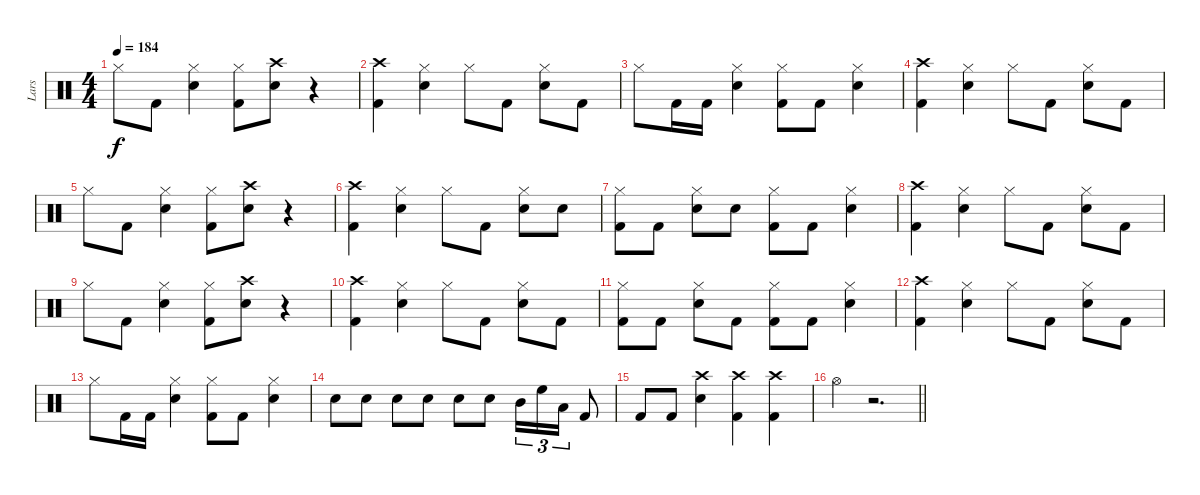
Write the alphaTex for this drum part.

\track ("Lars" "Lars") {instrument percussion}
\staff {score}
\articulation defaults
\ts (4 4)
\tempo 184
\clef neutral
\ks c "Hi-Hat (closed)".8{dy f} "Kick (hit) 2".8
("Hi-Hat (closed)" "Snare (hit) 2").4 ("Hi-Hat (closed)" "Kick (hit) 2").8 ("Crash high (hit)" "Snare (hit) 2").8 r.4 |
("Crash high (hit)" "Kick (hit) 2").4 ("Hi-Hat (closed)" "Snare (hit) 2").4 "Hi-Hat (closed)".8 "Kick (hit) 2".8 ("Hi-Hat (closed)" "Snare (hit) 2").8 "Kick (hit) 2".8 |
"Hi-Hat (closed)".8 "Kick (hit) 2".16 "Kick (hit) 2".16 ("Hi-Hat (closed)" "Snare (hit) 2").4 ("Hi-Hat (closed)" "Kick (hit) 2").8 "Kick (hit) 2".8 ("Hi-Hat (closed)" "Snare (hit) 2").4 |
("Crash high (hit)" "Kick (hit) 2").4 ("Hi-Hat (closed)" "Snare (hit) 2").4 "Hi-Hat (closed)".8 "Kick (hit) 2".8 ("Hi-Hat (closed)" "Snare (hit) 2").8 "Kick (hit) 2".8 |
"Hi-Hat (closed)".8 "Kick (hit) 2".8 ("Hi-Hat (closed)" "Snare (hit) 2").4 ("Hi-Hat (closed)" "Kick (hit) 2").8 ("Crash high (hit)" "Snare (hit) 2").8 r.4 |
("Crash high (hit)" "Kick (hit) 2").4 ("Hi-Hat (closed)" "Snare (hit) 2").4 "Hi-Hat (closed)".8 "Kick (hit) 2".8 ("Hi-Hat (closed)" "Snare (hit) 2").8 "Snare (hit) 2".8 |
("Hi-Hat (closed)" "Kick (hit) 2").8 "Kick (hit) 2".8 ("Hi-Hat (closed)" "Snare (hit) 2").8 "Snare (hit) 2".8 ("Hi-Hat (closed)" "Kick (hit) 2").8 "Kick (hit) 2".8 ("Hi-Hat (closed)" "Snare (hit) 2").4 |
("Crash high (hit)" "Kick (hit) 2").4 ("Hi-Hat (closed)" "Snare (hit) 2").4 "Hi-Hat (closed)".8 "Kick (hit) 2".8 ("Hi-Hat (closed)" "Snare (hit) 2").8 "Kick (hit) 2".8 |
"Hi-Hat (closed)".8 "Kick (hit) 2".8 ("Hi-Hat (closed)" "Snare (hit) 2").4 ("Hi-Hat (closed)" "Kick (hit) 2").8 ("Crash high (hit)" "Snare (hit) 2").8 r.4 |
("Crash high (hit)" "Kick (hit) 2").4 ("Hi-Hat (closed)" "Snare (hit) 2").4 "Hi-Hat (closed)".8 "Kick (hit) 2".8 ("Hi-Hat (closed)" "Snare (hit) 2").8 "Kick (hit) 2".8 |
("Hi-Hat (closed)" "Kick (hit) 2").8 "Kick (hit) 2".8 ("Hi-Hat (closed)" "Snare (hit) 2").8 "Kick (hit) 2".8 ("Hi-Hat (closed)" "Kick (hit) 2").8 "Kick (hit) 2".8 ("Hi-Hat (closed)" "Snare (hit) 2").4 |
("Crash high (hit)" "Kick (hit) 2").4 ("Hi-Hat (closed)" "Snare (hit) 2").4 "Hi-Hat (closed)".8 "Kick (hit) 2".8 ("Hi-Hat (closed)" "Snare (hit) 2").8 "Kick (hit) 2".8 |
"Hi-Hat (closed)".8 "Kick (hit) 2".16 "Kick (hit) 2".16 ("Hi-Hat (closed)" "Snare (hit) 2").4 ("Hi-Hat (closed)" "Kick (hit) 2").8 "Kick (hit) 2".8 ("Hi-Hat (closed)" "Snare (hit) 2").4 |
"Snare (hit) 2".8 "Snare (hit) 2".8 "Snare (hit) 2".8 "Snare (hit) 2".8 "Snare (hit) 2".8 "Snare (hit) 2".8 "Mid Tom (hit)".16{tu (3 2)} "High Floor Tom (hit)".16{tu (3 2)} "Low Tom (hit)".16{tu (3 2)} "Kick (hit) 2".8 |
"Kick (hit) 2".8 "Kick (hit) 2".8 ("Crash high (hit)" "Snare (hit) 2").4 ("Crash high (hit)" "Kick (hit) 2").4 ("Crash high (hit)" "Kick (hit) 2").4 |
\barLineRight lightlight "Hi-Hat (open)".4
r.2{d}
